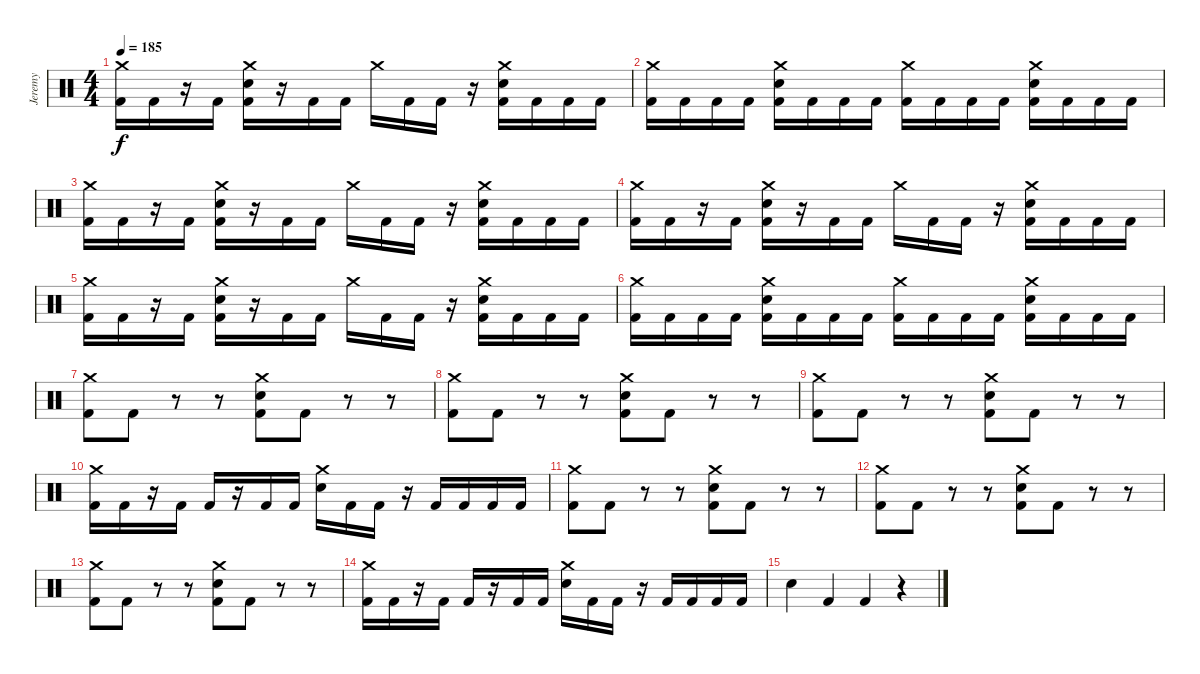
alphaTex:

\track ("Jeremy" "Jeremy") {instrument percussion}
\staff {score}
\articulation defaults
\ts (4 4)
\tempo 185
\clef neutral
\ks c
("Crash medium (hit)" "Kick (hit) 2").16{dy f} "Kick (hit) 2".16 r.16 "Kick (hit) 2".16 ("Crash medium (hit)" "Snare (hit) 2" "Kick (hit) 2").16 r.16 "Kick (hit) 2".16 "Kick (hit) 2".16 "Crash medium (hit)".16 "Kick (hit) 2".16 "Kick (hit) 2".16 r.16 ("Crash medium (hit)" "Snare (hit) 2" "Kick (hit) 2").16 "Kick (hit) 2".16 "Kick (hit) 2".16 "Kick (hit) 2".16 |
("Crash medium (hit)" "Kick (hit) 2").16 "Kick (hit) 2".16 "Kick (hit) 2".16 "Kick (hit) 2".16 ("Crash medium (hit)" "Snare (hit) 2" "Kick (hit) 2").16 "Kick (hit) 2".16 "Kick (hit) 2".16 "Kick (hit) 2".16 ("Crash medium (hit)" "Kick (hit) 2").16 "Kick (hit) 2".16 "Kick (hit) 2".16 "Kick (hit) 2".16 ("Crash medium (hit)" "Snare (hit) 2" "Kick (hit) 2").16 "Kick (hit) 2".16 "Kick (hit) 2".16 "Kick (hit) 2".16 |
("Crash medium (hit)" "Kick (hit) 2").16 "Kick (hit) 2".16 r.16 "Kick (hit) 2".16 ("Crash medium (hit)" "Snare (hit) 2" "Kick (hit) 2").16 r.16 "Kick (hit) 2".16 "Kick (hit) 2".16 "Crash medium (hit)".16 "Kick (hit) 2".16 "Kick (hit) 2".16 r.16 ("Crash medium (hit)" "Snare (hit) 2" "Kick (hit) 2").16 "Kick (hit) 2".16 "Kick (hit) 2".16 "Kick (hit) 2".16 |
("Crash medium (hit)" "Kick (hit) 2").16 "Kick (hit) 2".16 r.16 "Kick (hit) 2".16 ("Crash medium (hit)" "Snare (hit) 2" "Kick (hit) 2").16 r.16 "Kick (hit) 2".16 "Kick (hit) 2".16 "Crash medium (hit)".16 "Kick (hit) 2".16 "Kick (hit) 2".16 r.16 ("Crash medium (hit)" "Snare (hit) 2" "Kick (hit) 2").16 "Kick (hit) 2".16 "Kick (hit) 2".16 "Kick (hit) 2".16 |
("Crash medium (hit)" "Kick (hit) 2").16 "Kick (hit) 2".16 r.16 "Kick (hit) 2".16 ("Crash medium (hit)" "Snare (hit) 2" "Kick (hit) 2").16 r.16 "Kick (hit) 2".16 "Kick (hit) 2".16 "Crash medium (hit)".16 "Kick (hit) 2".16 "Kick (hit) 2".16 r.16 ("Crash medium (hit)" "Snare (hit) 2" "Kick (hit) 2").16 "Kick (hit) 2".16 "Kick (hit) 2".16 "Kick (hit) 2".16 |
("Crash medium (hit)" "Kick (hit) 2").16 "Kick (hit) 2".16 "Kick (hit) 2".16 "Kick (hit) 2".16 ("Crash medium (hit)" "Snare (hit) 2" "Kick (hit) 2").16 "Kick (hit) 2".16 "Kick (hit) 2".16 "Kick (hit) 2".16 ("Crash medium (hit)" "Kick (hit) 2").16 "Kick (hit) 2".16 "Kick (hit) 2".16 "Kick (hit) 2".16 ("Crash medium (hit)" "Snare (hit) 2" "Kick (hit) 2").16 "Kick (hit) 2".16 "Kick (hit) 2".16 "Kick (hit) 2".16 |
("Crash medium (hit)" "Kick (hit) 2").8 "Kick (hit) 2".8 r.8 r.8 ("Crash medium (hit)" "Snare (hit) 2" "Kick (hit) 2").8 "Kick (hit) 2".8 r.8 r.8 |
("Crash medium (hit)" "Kick (hit) 2").8 "Kick (hit) 2".8 r.8 r.8 ("Crash medium (hit)" "Snare (hit) 2" "Kick (hit) 2").8 "Kick (hit) 2".8 r.8 r.8 |
("Crash medium (hit)" "Kick (hit) 2").8 "Kick (hit) 2".8 r.8 r.8 ("Crash medium (hit)" "Snare (hit) 2" "Kick (hit) 2").8 "Kick (hit) 2".8 r.8 r.8 |
("Crash medium (hit)" "Kick (hit) 2").16 "Kick (hit) 2".16 r.16 "Kick (hit) 2".16 "Kick (hit) 2".16 r.16 "Kick (hit) 2".16 "Kick (hit) 2".16 ("Crash medium (hit)" "Snare (hit) 2").16 "Kick (hit) 2".16 "Kick (hit) 2".16 r.16 "Kick (hit) 2".16 "Kick (hit) 2".16 "Kick (hit) 2".16 "Kick (hit) 2".16 |
("Crash medium (hit)" "Kick (hit) 2").8 "Kick (hit) 2".8 r.8 r.8 ("Crash medium (hit)" "Snare (hit) 2" "Kick (hit) 2").8 "Kick (hit) 2".8 r.8 r.8 |
("Crash medium (hit)" "Kick (hit) 2").8 "Kick (hit) 2".8 r.8 r.8 ("Crash medium (hit)" "Snare (hit) 2" "Kick (hit) 2").8 "Kick (hit) 2".8 r.8 r.8 |
("Crash medium (hit)" "Kick (hit) 2").8 "Kick (hit) 2".8 r.8 r.8 ("Crash medium (hit)" "Snare (hit) 2" "Kick (hit) 2").8 "Kick (hit) 2".8 r.8 r.8 |
("Crash medium (hit)" "Kick (hit) 2").16 "Kick (hit) 2".16 r.16 "Kick (hit) 2".16 "Kick (hit) 2".16 r.16 "Kick (hit) 2".16 "Kick (hit) 2".16 ("Crash medium (hit)" "Snare (hit) 2").16 "Kick (hit) 2".16 "Kick (hit) 2".16 r.16 "Kick (hit) 2".16 "Kick (hit) 2".16 "Kick (hit) 2".16 "Kick (hit) 2".16 |
"Snare (hit) 2".4 "Kick (hit) 2".4 "Kick (hit) 2".4 r.4
